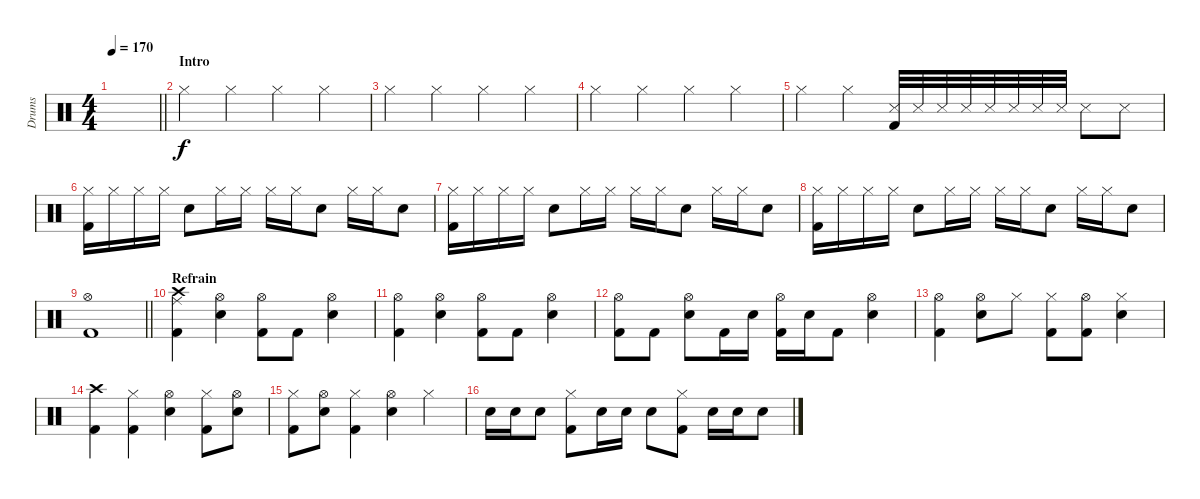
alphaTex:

\track ("Drums" "Drums") {instrument percussion}
\staff {score}
\articulation defaults
\ts (4 4)
\tempo 170
\clef neutral
\barLineRight lightlight
\ks c
|
\section ("" "Intro")
"Hi-Hat (closed)".4 "Hi-Hat (closed)".4 "Hi-Hat (closed)".4 "Hi-Hat (closed)".4 |
"Hi-Hat (closed)".4 "Hi-Hat (closed)".4 "Hi-Hat (closed)".4 "Hi-Hat (closed)".4 |
"Hi-Hat (closed)".4 "Hi-Hat (closed)".4 "Hi-Hat (closed)".4 "Hi-Hat (closed)".4 |
"Hi-Hat (closed)".4 "Hi-Hat (closed)".4 ("Snare (side stick) 3" "Kick (hit) 2").32 "Snare (side stick) 3".32 "Snare (side stick) 3".32 "Snare (side stick) 3".32 "Snare (side stick) 3".32 "Snare (side stick) 3".32 "Snare (side stick) 3".32 "Snare (side stick) 3".32 "Snare (side stick) 3".8 "Snare (side stick) 3".8 |
("Hi-Hat (closed)" "Kick (hit) 2").16 "Hi-Hat (closed)".16 "Hi-Hat (closed)".16 "Hi-Hat (closed)".16 "Electric Snare (hit)".8 "Hi-Hat (closed)".16 "Hi-Hat (closed)".16 "Hi-Hat (closed)".16 "Hi-Hat (closed)".16 "Electric Snare (hit)".8 "Hi-Hat (closed)".16 "Hi-Hat (closed)".16 "Electric Snare (hit)".8 |
("Hi-Hat (closed)" "Kick (hit) 2").16 "Hi-Hat (closed)".16 "Hi-Hat (closed)".16 "Hi-Hat (closed)".16 "Electric Snare (hit)".8 "Hi-Hat (closed)".16 "Hi-Hat (closed)".16 "Hi-Hat (closed)".16 "Hi-Hat (closed)".16 "Electric Snare (hit)".8 "Hi-Hat (closed)".16 "Hi-Hat (closed)".16 "Electric Snare (hit)".8 |
("Hi-Hat (closed)" "Kick (hit) 2").16 "Hi-Hat (closed)".16 "Hi-Hat (closed)".16 "Hi-Hat (closed)".16 "Electric Snare (hit)".8 "Hi-Hat (closed)".16 "Hi-Hat (closed)".16 "Hi-Hat (closed)".16 "Hi-Hat (closed)".16 "Electric Snare (hit)".8 "Hi-Hat (closed)".16 "Hi-Hat (closed)".16 "Electric Snare (hit)".8 |
\barLineRight lightlight
("Hi-Hat (open)" "Kick (hit) 2").1 |
\section ("" "Refrain")
("Kick (hit) 2" "Ride (middle)" "Crash high (hit)").4 ("Electric Snare (hit)" "Hi-Hat (open)").4 ("Kick (hit) 2" "Hi-Hat (open)").8 "Kick (hit) 2".8 ("Electric Snare (hit)" "Hi-Hat (open)").4 |
("Kick (hit) 2" "Hi-Hat (open)").4 ("Electric Snare (hit)" "Hi-Hat (open)").4 ("Kick (hit) 2" "Hi-Hat (open)").8 "Kick (hit) 2".8 ("Electric Snare (hit)" "Hi-Hat (open)").4 |
("Kick (hit) 2" "Hi-Hat (open)").8 "Kick (hit) 2".8 ("Electric Snare (hit)" "Hi-Hat (open)").8 "Kick (hit) 2".16 "Electric Snare (hit)".16 ("Kick (hit) 2" "Hi-Hat (open)").16 "Electric Snare (hit)".16 "Kick (hit) 2".8 ("Electric Snare (hit)" "Hi-Hat (open)").4 |
("Kick (hit) 2" "Hi-Hat (open)").4 ("Electric Snare (hit)" "Hi-Hat (open)").8 "Hi-Hat (closed)".8 ("Kick (hit) 2" "Hi-Hat (closed)").8 ("Kick (hit) 2" "Hi-Hat (open)").8 ("Electric Snare (hit)" "Hi-Hat (closed)").4 |
("Kick (hit) 2" "Crash high (hit)").4 ("Kick (hit) 2" "Hi-Hat (closed)").4 ("Electric Snare (hit)" "Hi-Hat (open)").4 ("Kick (hit) 2" "Hi-Hat (closed)").8 ("Electric Snare (hit)" "Hi-Hat (open)").8 |
("Kick (hit) 2" "Hi-Hat (closed)").8 ("Electric Snare (hit)" "Hi-Hat (open)").8 ("Kick (hit) 2" "Hi-Hat (closed)").4 ("Electric Snare (hit)" "Hi-Hat (open)").4 "Hi-Hat (closed)".4 |
"Electric Snare (hit)".16 "Electric Snare (hit)".16 "Electric Snare (hit)".8 ("Kick (hit) 2" "Hi-Hat (closed)").8 "Electric Snare (hit)".16 "Electric Snare (hit)".16 "Electric Snare (hit)".8 ("Kick (hit) 2" "Hi-Hat (closed)").8 "Electric Snare (hit)".16 "Electric Snare (hit)".16 "Electric Snare (hit)".8
